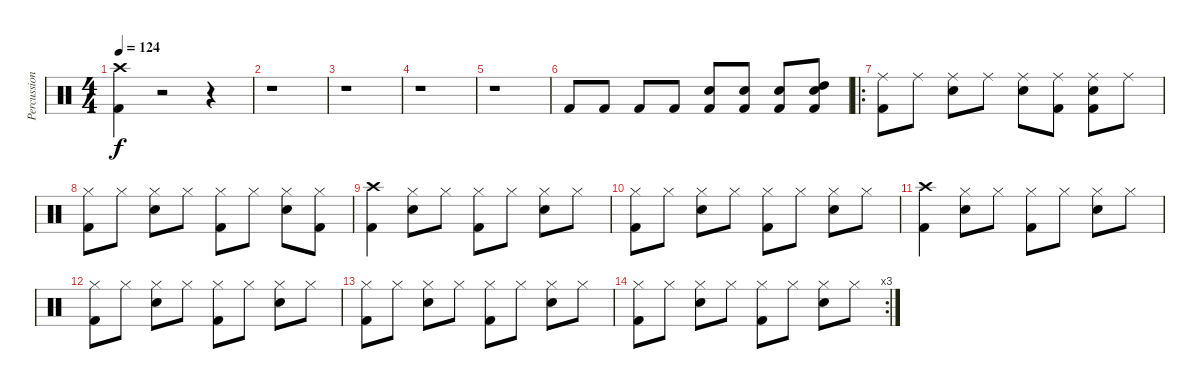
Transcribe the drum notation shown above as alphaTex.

\track ("Percussion" "Percussion") {instrument percussion}
\staff {score}
\articulation defaults
\ts (4 4)
\tempo 124
\clef neutral
\ks c
("Crash high (hit)" "Kick (hit) 2").4{dy f} r.2 r.4 |
r.1 |
r.1 |
r.1 |
r.1 |
"Kick (hit) 2".8 "Kick (hit) 2".8 "Kick (hit) 2".8 "Kick (hit) 2".8 ("Snare (hit) 2" "Kick (hit) 2").8 ("Snare (hit) 2" "Kick (hit) 2").8 ("Snare (hit) 2" "Kick (hit) 2").8 ("Snare (hit) 2" "High Tom (hit)" "Kick (hit) 2").8 |
\ro
("Ride (middle)" "Kick (hit) 2").8 "Ride (middle)".8 ("Ride (middle)" "Snare (hit) 2").8 "Ride (middle)".8 ("Ride (middle)" "Snare (hit) 2").8 ("Ride (middle)" "Kick (hit) 2").8 ("Ride (middle)" "Snare (hit) 2" "Kick (hit) 2").8 "Ride (middle)".8 |
("Hi-Hat (closed)" "Kick (hit) 2").8 "Hi-Hat (closed)".8 ("Hi-Hat (closed)" "Snare (hit) 2").8 "Hi-Hat (closed)".8 ("Hi-Hat (closed)" "Kick (hit) 2").8 "Hi-Hat (closed)".8 ("Hi-Hat (closed)" "Snare (hit) 2").8 ("Hi-Hat (closed)" "Kick (hit) 2").8 |
("Crash high (hit)" "Kick (hit) 2").4 ("Hi-Hat (closed)" "Snare (hit) 2").8 "Hi-Hat (closed)".8 ("Hi-Hat (closed)" "Kick (hit) 2").8 "Hi-Hat (closed)".8 ("Hi-Hat (closed)" "Snare (hit) 2").8 "Hi-Hat (closed)".8 |
("Hi-Hat (closed)" "Kick (hit) 2").8 "Hi-Hat (closed)".8 ("Hi-Hat (closed)" "Snare (hit) 2").8 "Hi-Hat (closed)".8 ("Hi-Hat (closed)" "Kick (hit) 2").8 "Hi-Hat (closed)".8 ("Hi-Hat (closed)" "Snare (hit) 2").8 "Hi-Hat (closed)".8 |
("Crash high (hit)" "Kick (hit) 2").4 ("Hi-Hat (closed)" "Snare (hit) 2").8 "Hi-Hat (closed)".8 ("Hi-Hat (closed)" "Kick (hit) 2").8 "Hi-Hat (closed)".8 ("Hi-Hat (closed)" "Snare (hit) 2").8 "Hi-Hat (closed)".8 |
("Hi-Hat (closed)" "Kick (hit) 2").8 "Hi-Hat (closed)".8 ("Hi-Hat (closed)" "Snare (hit) 2").8 "Hi-Hat (closed)".8 ("Hi-Hat (closed)" "Kick (hit) 2").8 "Hi-Hat (closed)".8 ("Hi-Hat (closed)" "Snare (hit) 2").8 "Hi-Hat (closed)".8 |
("Hi-Hat (closed)" "Kick (hit) 2").8 "Hi-Hat (closed)".8 ("Hi-Hat (closed)" "Snare (hit) 2").8 "Hi-Hat (closed)".8 ("Hi-Hat (closed)" "Kick (hit) 2").8 "Hi-Hat (closed)".8 ("Hi-Hat (closed)" "Snare (hit) 2").8 "Hi-Hat (closed)".8 |
\rc 3
("Hi-Hat (closed)" "Kick (hit) 2").8 "Hi-Hat (closed)".8 ("Hi-Hat (closed)" "Snare (hit) 2").8 "Hi-Hat (closed)".8 ("Hi-Hat (closed)" "Kick (hit) 2").8 "Hi-Hat (closed)".8 ("Hi-Hat (closed)" "Snare (hit) 2").8 "Hi-Hat (closed)".8
